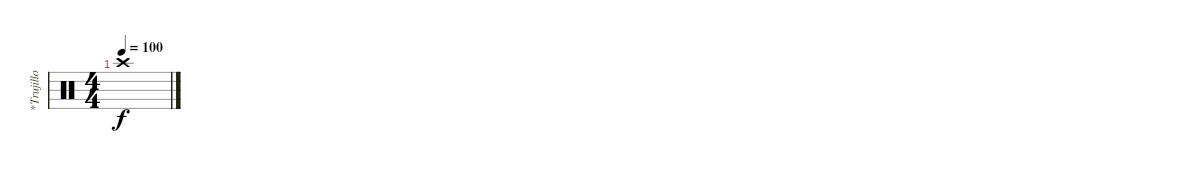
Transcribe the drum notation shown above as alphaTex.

\track ("*Trujillo" "*Trujillo") {instrument percussion}
\staff {score}
\articulation defaults
\ts (4 4)
\tempo 100
\clef neutral
\ks c "Crash high (hit)".1{dy f}
